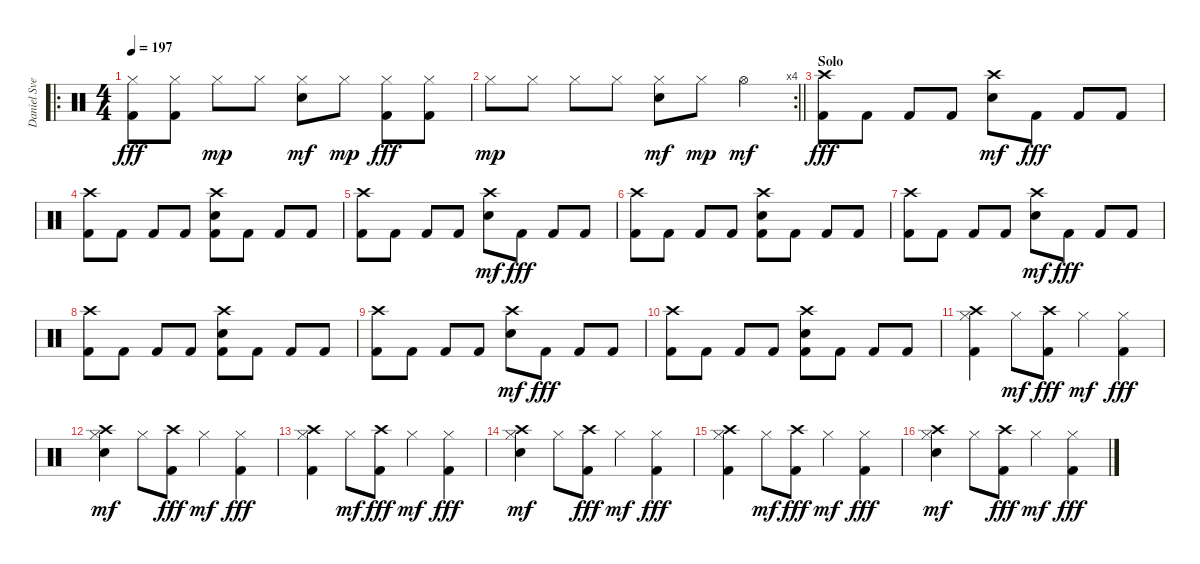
\track ("Daniel Svensson" "Daniel Sve") {instrument percussion}
\staff {score}
\articulation defaults
\ro
\ts (4 4)
\tempo 197
\clef neutral
\ks c
("Hi-Hat (closed)" "Kick (hit) 2").8{dy fff} ("Hi-Hat (closed)" "Kick (hit) 2").8 "Hi-Hat (closed)".8{dy mp} "Hi-Hat (closed)".8 ("Hi-Hat (closed)" "Electric Snare (hit)").8{dy mf} "Hi-Hat (closed)".8{dy mp} ("Hi-Hat (closed)" "Kick (hit) 2").8{dy fff} ("Hi-Hat (closed)" "Kick (hit) 2").8 |
\rc 4
\barLineRight lightlight "Hi-Hat (closed)".8{dy mp} "Hi-Hat (closed)".8 "Hi-Hat (closed)".8 "Hi-Hat (closed)".8
("Hi-Hat (closed)" "Electric Snare (hit)").8{dy mf} "Hi-Hat (closed)".8{dy mp} "Hi-Hat (open)".4{dy mf} |
\section ("" "Solo")
("Crash high (hit)" "Kick (hit) 2").8{dy fff} "Kick (hit) 2".8 "Kick (hit) 2".8 "Kick (hit) 2".8 ("Crash high (hit)" "Electric Snare (hit)").8{dy mf} "Kick (hit) 2".8{dy fff} "Kick (hit) 2".8 "Kick (hit) 2".8 |
("Crash high (hit)" "Kick (hit) 2").8 "Kick (hit) 2".8 "Kick (hit) 2".8 "Kick (hit) 2".8 ("Crash high (hit)" "Electric Snare (hit)" "Kick (hit) 2").8 "Kick (hit) 2".8 "Kick (hit) 2".8 "Kick (hit) 2".8 |
("Crash high (hit)" "Kick (hit) 2").8 "Kick (hit) 2".8 "Kick (hit) 2".8 "Kick (hit) 2".8 ("Crash high (hit)" "Electric Snare (hit)").8{dy mf} "Kick (hit) 2".8{dy fff} "Kick (hit) 2".8 "Kick (hit) 2".8 |
("Crash high (hit)" "Kick (hit) 2").8 "Kick (hit) 2".8 "Kick (hit) 2".8 "Kick (hit) 2".8 ("Crash high (hit)" "Electric Snare (hit)" "Kick (hit) 2").8 "Kick (hit) 2".8 "Kick (hit) 2".8 "Kick (hit) 2".8 |
("Crash high (hit)" "Kick (hit) 2").8 "Kick (hit) 2".8 "Kick (hit) 2".8 "Kick (hit) 2".8 ("Crash high (hit)" "Electric Snare (hit)").8{dy mf} "Kick (hit) 2".8{dy fff} "Kick (hit) 2".8 "Kick (hit) 2".8 |
("Crash high (hit)" "Kick (hit) 2").8 "Kick (hit) 2".8 "Kick (hit) 2".8 "Kick (hit) 2".8 ("Crash high (hit)" "Electric Snare (hit)" "Kick (hit) 2").8 "Kick (hit) 2".8 "Kick (hit) 2".8 "Kick (hit) 2".8 |
("Crash high (hit)" "Kick (hit) 2").8 "Kick (hit) 2".8 "Kick (hit) 2".8 "Kick (hit) 2".8 ("Crash high (hit)" "Electric Snare (hit)").8{dy mf} "Kick (hit) 2".8{dy fff} "Kick (hit) 2".8 "Kick (hit) 2".8 |
("Crash high (hit)" "Kick (hit) 2").8 "Kick (hit) 2".8 "Kick (hit) 2".8 "Kick (hit) 2".8 ("Crash high (hit)" "Electric Snare (hit)" "Kick (hit) 2").8 "Kick (hit) 2".8 "Kick (hit) 2".8 "Kick (hit) 2".8 |
("Crash high (hit)" "Hi-Hat (closed)" "Kick (hit) 2").4 "Hi-Hat (closed)".8{dy mf} ("Crash high (hit)" "Kick (hit) 2").8{dy fff} "Hi-Hat (closed)".4{dy mf} ("Hi-Hat (closed)" "Kick (hit) 2").4{dy fff} |
("Crash high (hit)" "Hi-Hat (closed)" "Electric Snare (hit)").4{dy mf} "Hi-Hat (closed)".8 ("Crash high (hit)" "Kick (hit) 2").8{dy fff} "Hi-Hat (closed)".4{dy mf} ("Hi-Hat (closed)" "Kick (hit) 2").4{dy fff} |
("Crash high (hit)" "Hi-Hat (closed)" "Kick (hit) 2").4 "Hi-Hat (closed)".8{dy mf} ("Crash high (hit)" "Kick (hit) 2").8{dy fff} "Hi-Hat (closed)".4{dy mf} ("Hi-Hat (closed)" "Kick (hit) 2").4{dy fff} |
("Crash high (hit)" "Hi-Hat (closed)" "Electric Snare (hit)").4{dy mf} "Hi-Hat (closed)".8 ("Crash high (hit)" "Kick (hit) 2").8{dy fff} "Hi-Hat (closed)".4{dy mf} ("Hi-Hat (closed)" "Kick (hit) 2").4{dy fff} |
("Crash high (hit)" "Hi-Hat (closed)" "Kick (hit) 2").4 "Hi-Hat (closed)".8{dy mf} ("Crash high (hit)" "Kick (hit) 2").8{dy fff} "Hi-Hat (closed)".4{dy mf} ("Hi-Hat (closed)" "Kick (hit) 2").4{dy fff} |
("Crash high (hit)" "Hi-Hat (closed)" "Electric Snare (hit)").4{dy mf} "Hi-Hat (closed)".8 ("Crash high (hit)" "Kick (hit) 2").8{dy fff} "Hi-Hat (closed)".4{dy mf} ("Hi-Hat (closed)" "Kick (hit) 2").4{dy fff}
